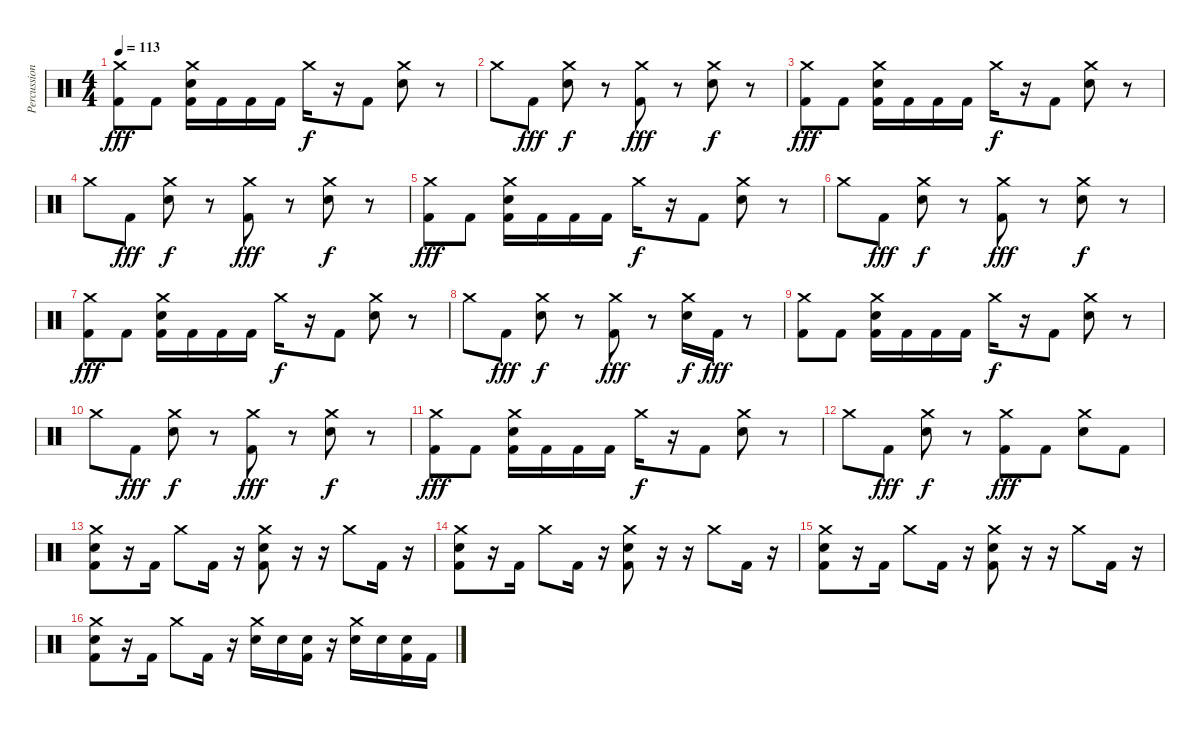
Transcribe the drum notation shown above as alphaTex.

\track ("Percussion" "Percussion") {instrument percussion}
\staff {score}
\articulation defaults
\ts (4 4)
\tempo 113
\clef neutral
\ks c
("Crash medium (hit)" "Kick (hit) 2").8{dy fff} "Kick (hit) 2".8 ("Crash medium (hit)" "Electric Snare (hit)" "Kick (hit) 2").16 "Kick (hit) 2".16 "Kick (hit) 2".16 "Kick (hit) 2".16 "Crash medium (hit)".16{dy f} r.16 "Kick (hit) 2".8 ("Crash medium (hit)" "Electric Snare (hit)").8 r.8 |
"Crash medium (hit)".8 "Kick (hit) 2".8{dy fff} ("Crash medium (hit)" "Electric Snare (hit)").8{dy f} r.8 ("Crash medium (hit)" "Kick (hit) 2").8{dy fff} r.8 ("Crash medium (hit)" "Electric Snare (hit)").8{dy f} r.8 |
("Crash medium (hit)" "Kick (hit) 2").8{dy fff} "Kick (hit) 2".8 ("Crash medium (hit)" "Electric Snare (hit)" "Kick (hit) 2").16 "Kick (hit) 2".16 "Kick (hit) 2".16 "Kick (hit) 2".16 "Crash medium (hit)".16{dy f} r.16 "Kick (hit) 2".8 ("Crash medium (hit)" "Electric Snare (hit)").8 r.8 |
"Crash medium (hit)".8 "Kick (hit) 2".8{dy fff} ("Crash medium (hit)" "Electric Snare (hit)").8{dy f} r.8 ("Crash medium (hit)" "Kick (hit) 2").8{dy fff} r.8 ("Crash medium (hit)" "Electric Snare (hit)").8{dy f} r.8 |
("Crash medium (hit)" "Kick (hit) 2").8{dy fff} "Kick (hit) 2".8 ("Crash medium (hit)" "Electric Snare (hit)" "Kick (hit) 2").16 "Kick (hit) 2".16 "Kick (hit) 2".16 "Kick (hit) 2".16 "Crash medium (hit)".16{dy f} r.16 "Kick (hit) 2".8 ("Crash medium (hit)" "Electric Snare (hit)").8 r.8 |
"Crash medium (hit)".8 "Kick (hit) 2".8{dy fff} ("Crash medium (hit)" "Electric Snare (hit)").8{dy f} r.8 ("Crash medium (hit)" "Kick (hit) 2").8{dy fff} r.8 ("Crash medium (hit)" "Electric Snare (hit)").8{dy f} r.8 |
("Crash medium (hit)" "Kick (hit) 2").8{dy fff} "Kick (hit) 2".8 ("Crash medium (hit)" "Electric Snare (hit)" "Kick (hit) 2").16 "Kick (hit) 2".16 "Kick (hit) 2".16 "Kick (hit) 2".16 "Crash medium (hit)".16{dy f} r.16 "Kick (hit) 2".8 ("Crash medium (hit)" "Electric Snare (hit)").8 r.8 |
"Crash medium (hit)".8 "Kick (hit) 2".8{dy fff} ("Crash medium (hit)" "Electric Snare (hit)").8{dy f} r.8 ("Crash medium (hit)" "Kick (hit) 2").8{dy fff} r.8 ("Crash medium (hit)" "Electric Snare (hit)").16{dy f} "Kick (hit) 2".16{dy fff} r.8 |
("Crash medium (hit)" "Kick (hit) 2").8 "Kick (hit) 2".8 ("Crash medium (hit)" "Electric Snare (hit)" "Kick (hit) 2").16 "Kick (hit) 2".16 "Kick (hit) 2".16 "Kick (hit) 2".16 "Crash medium (hit)".16{dy f} r.16 "Kick (hit) 2".8 ("Crash medium (hit)" "Electric Snare (hit)").8 r.8 |
"Crash medium (hit)".8 "Kick (hit) 2".8{dy fff} ("Crash medium (hit)" "Electric Snare (hit)").8{dy f} r.8 ("Crash medium (hit)" "Kick (hit) 2").8{dy fff} r.8 ("Crash medium (hit)" "Electric Snare (hit)").8{dy f} r.8 |
("Crash medium (hit)" "Kick (hit) 2").8{dy fff} "Kick (hit) 2".8 ("Crash medium (hit)" "Electric Snare (hit)" "Kick (hit) 2").16 "Kick (hit) 2".16 "Kick (hit) 2".16 "Kick (hit) 2".16 "Crash medium (hit)".16{dy f} r.16 "Kick (hit) 2".8 ("Crash medium (hit)" "Electric Snare (hit)").8 r.8 |
"Crash medium (hit)".8 "Kick (hit) 2".8{dy fff} ("Crash medium (hit)" "Electric Snare (hit)").8{dy f} r.8 ("Crash medium (hit)" "Kick (hit) 2").8{dy fff} "Kick (hit) 2".8 ("Crash medium (hit)" "Electric Snare (hit)").8 "Kick (hit) 2".8 |
("Crash medium (hit)" "Electric Snare (hit)" "Kick (hit) 2").8 r.16 "Kick (hit) 2".16 "Crash medium (hit)".8 "Kick (hit) 2".16 r.16 ("Crash medium (hit)" "Electric Snare (hit)" "Kick (hit) 2").8 r.16 r.16 "Crash medium (hit)".8 "Kick (hit) 2".16 r.16 |
("Crash medium (hit)" "Electric Snare (hit)" "Kick (hit) 2").8 r.16 "Kick (hit) 2".16 "Crash medium (hit)".8 "Kick (hit) 2".16 r.16 ("Crash medium (hit)" "Electric Snare (hit)" "Kick (hit) 2").8 r.16 r.16 "Crash medium (hit)".8 "Kick (hit) 2".16 r.16 |
("Crash medium (hit)" "Electric Snare (hit)" "Kick (hit) 2").8 r.16 "Kick (hit) 2".16 "Crash medium (hit)".8 "Kick (hit) 2".16 r.16 ("Crash medium (hit)" "Electric Snare (hit)" "Kick (hit) 2").8 r.16 r.16 "Crash medium (hit)".8 "Kick (hit) 2".16 r.16 |
("Crash medium (hit)" "Electric Snare (hit)" "Kick (hit) 2").8 r.16 "Kick (hit) 2".16 "Crash medium (hit)".8 "Kick (hit) 2".16 r.16 ("Crash medium (hit)" "Electric Snare (hit)").16 "Electric Snare (hit)".16 ("Electric Snare (hit)" "Kick (hit) 2").16 r.16 ("Crash medium (hit)" "Electric Snare (hit)").16 "Electric Snare (hit)".16 ("Electric Snare (hit)" "Kick (hit) 2").16 "Kick (hit) 2".16
